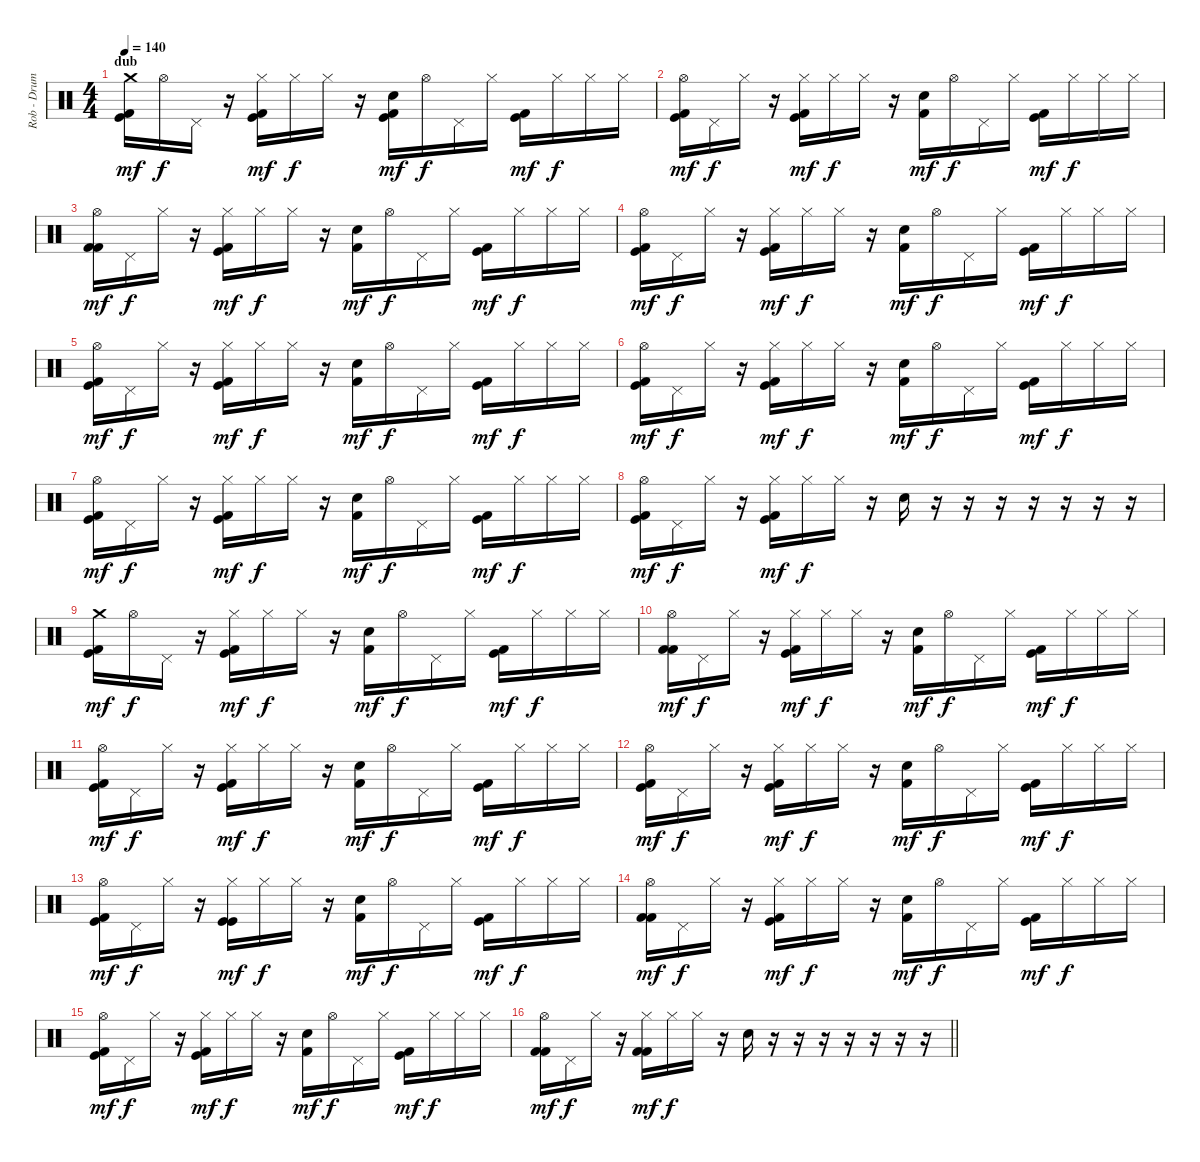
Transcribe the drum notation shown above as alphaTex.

\track ("Rob - Drums" "Rob - Drum") {instrument percussion}
\staff {score}
\articulation defaults
\ts (4 4)
\section ("" "dub")
\tempo 140
\clef neutral
\ks c
("Crash medium (hit)" "Kick (hit)" "Kick (hit) 2").16{dy mf} "Hi-Hat (open)".16{dy f} "Pedal Hi-Hat (hit)".16 r.16 ("Hi-Hat (closed)" "Kick (hit)" "Kick (hit) 2").16{dy mf} "Hi-Hat (closed)".16{dy f} "Hi-Hat (closed)".16 r.16 ("Kick (hit)" "Electric Snare (hit)" "Kick (hit) 2").16{dy mf} "Hi-Hat (open)".16{dy f} "Pedal Hi-Hat (hit)".16 "Hi-Hat (closed)".16 ("Kick (hit)" "Kick (hit) 2").16{dy mf} "Hi-Hat (closed)".16{dy f} "Hi-Hat (closed)".16 "Hi-Hat (closed)".16 |
("Hi-Hat (open)" "Kick (hit)" "Kick (hit) 2").16{dy mf} "Pedal Hi-Hat (hit)".16{dy f} "Hi-Hat (closed)".16 r.16 ("Hi-Hat (closed)" "Kick (hit)" "Kick (hit) 2").16{dy mf} "Hi-Hat (closed)".16{dy f} "Hi-Hat (closed)".16 r.16 ("Electric Snare (hit)" "Kick (hit) 2").16{dy mf} "Hi-Hat (open)".16{dy f} "Pedal Hi-Hat (hit)".16 "Hi-Hat (closed)".16 ("Kick (hit)" "Kick (hit) 2").16{dy mf} "Hi-Hat (closed)".16{dy f} "Hi-Hat (closed)".16 "Hi-Hat (closed)".16 |
("Hi-Hat (open)" "Kick (hit) 2" "Kick (hit) 2").16{dy mf} "Pedal Hi-Hat (hit)".16{dy f} "Hi-Hat (closed)".16 r.16 ("Hi-Hat (closed)" "Kick (hit)" "Kick (hit) 2").16{dy mf} "Hi-Hat (closed)".16{dy f} "Hi-Hat (closed)".16 r.16 ("Electric Snare (hit)" "Kick (hit) 2").16{dy mf} "Hi-Hat (open)".16{dy f} "Pedal Hi-Hat (hit)".16 "Hi-Hat (closed)".16 ("Kick (hit)" "Kick (hit) 2").16{dy mf} "Hi-Hat (closed)".16{dy f} "Hi-Hat (closed)".16 "Hi-Hat (closed)".16 |
("Hi-Hat (open)" "Kick (hit)" "Kick (hit) 2").16{dy mf} "Pedal Hi-Hat (hit)".16{dy f} "Hi-Hat (closed)".16 r.16 ("Hi-Hat (closed)" "Kick (hit)" "Kick (hit) 2").16{dy mf} "Hi-Hat (closed)".16{dy f} "Hi-Hat (closed)".16 r.16 ("Electric Snare (hit)" "Kick (hit) 2").16{dy mf} "Hi-Hat (open)".16{dy f} "Pedal Hi-Hat (hit)".16 "Hi-Hat (closed)".16 ("Kick (hit)" "Kick (hit) 2").16{dy mf} "Hi-Hat (closed)".16{dy f} "Hi-Hat (closed)".16 "Hi-Hat (closed)".16 |
("Hi-Hat (open)" "Kick (hit)" "Kick (hit) 2").16{dy mf} "Pedal Hi-Hat (hit)".16{dy f} "Hi-Hat (closed)".16 r.16 ("Hi-Hat (closed)" "Kick (hit) 2" "Kick (hit)").16{dy mf} "Hi-Hat (closed)".16{dy f} "Hi-Hat (closed)".16 r.16 ("Electric Snare (hit)" "Kick (hit) 2").16{dy mf} "Hi-Hat (open)".16{dy f} "Pedal Hi-Hat (hit)".16 "Hi-Hat (closed)".16 ("Kick (hit)" "Kick (hit) 2").16{dy mf} "Hi-Hat (closed)".16{dy f} "Hi-Hat (closed)".16 "Hi-Hat (closed)".16 |
("Hi-Hat (open)" "Kick (hit)" "Kick (hit) 2").16{dy mf} "Pedal Hi-Hat (hit)".16{dy f} "Hi-Hat (closed)".16 r.16 ("Hi-Hat (closed)" "Kick (hit)" "Kick (hit) 2").16{dy mf} "Hi-Hat (closed)".16{dy f} "Hi-Hat (closed)".16 r.16 ("Electric Snare (hit)" "Kick (hit) 2").16{dy mf} "Hi-Hat (open)".16{dy f} "Pedal Hi-Hat (hit)".16 "Hi-Hat (closed)".16 ("Kick (hit) 2" "Kick (hit)").16{dy mf} "Hi-Hat (closed)".16{dy f} "Hi-Hat (closed)".16 "Hi-Hat (closed)".16 |
("Hi-Hat (open)" "Kick (hit)" "Kick (hit) 2").16{dy mf} "Pedal Hi-Hat (hit)".16{dy f} "Hi-Hat (closed)".16 r.16 ("Hi-Hat (closed)" "Kick (hit)" "Kick (hit) 2").16{dy mf} "Hi-Hat (closed)".16{dy f} "Hi-Hat (closed)".16 r.16 ("Electric Snare (hit)" "Kick (hit) 2").16{dy mf} "Hi-Hat (open)".16{dy f} "Pedal Hi-Hat (hit)".16 "Hi-Hat (closed)".16 ("Kick (hit)" "Kick (hit) 2").16{dy mf} "Hi-Hat (closed)".16{dy f} "Hi-Hat (closed)".16 "Hi-Hat (closed)".16 |
("Hi-Hat (open)" "Kick (hit)" "Kick (hit) 2").16{dy mf} "Pedal Hi-Hat (hit)".16{dy f} "Hi-Hat (closed)".16 r.16 ("Hi-Hat (closed)" "Kick (hit)" "Kick (hit) 2").16{dy mf} "Hi-Hat (closed)".16{dy f} "Hi-Hat (closed)".16 r.16 "Electric Snare (hit)".16 r.16 r.16 r.16 r.16 r.16 r.16 r.16 |
("Crash medium (hit)" "Kick (hit)" "Kick (hit) 2").16{dy mf} "Hi-Hat (open)".16{dy f} "Pedal Hi-Hat (hit)".16 r.16 ("Hi-Hat (closed)" "Kick (hit)" "Kick (hit) 2").16{dy mf} "Hi-Hat (closed)".16{dy f} "Hi-Hat (closed)".16 r.16 ("Electric Snare (hit)" "Kick (hit) 2").16{dy mf} "Hi-Hat (open)".16{dy f} "Pedal Hi-Hat (hit)".16 "Hi-Hat (closed)".16 ("Kick (hit)" "Kick (hit) 2").16{dy mf} "Hi-Hat (closed)".16{dy f} "Hi-Hat (closed)".16 "Hi-Hat (closed)".16 |
("Hi-Hat (open)" "Kick (hit) 2" "Kick (hit) 2").16{dy mf} "Pedal Hi-Hat (hit)".16{dy f} "Hi-Hat (closed)".16 r.16 ("Hi-Hat (closed)" "Kick (hit) 2" "Kick (hit)").16{dy mf} "Hi-Hat (closed)".16{dy f} "Hi-Hat (closed)".16 r.16 ("Electric Snare (hit)" "Kick (hit) 2").16{dy mf} "Hi-Hat (open)".16{dy f} "Pedal Hi-Hat (hit)".16 "Hi-Hat (closed)".16 ("Kick (hit)" "Kick (hit) 2").16{dy mf} "Hi-Hat (closed)".16{dy f} "Hi-Hat (closed)".16 "Hi-Hat (closed)".16 |
("Hi-Hat (open)" "Kick (hit)" "Kick (hit) 2").16{dy mf} "Pedal Hi-Hat (hit)".16{dy f} "Hi-Hat (closed)".16 r.16 ("Hi-Hat (closed)" "Kick (hit)" "Kick (hit) 2").16{dy mf} "Hi-Hat (closed)".16{dy f} "Hi-Hat (closed)".16 r.16 ("Electric Snare (hit)" "Kick (hit) 2").16{dy mf} "Hi-Hat (open)".16{dy f} "Pedal Hi-Hat (hit)".16 "Hi-Hat (closed)".16 ("Kick (hit)" "Kick (hit) 2").16{dy mf} "Hi-Hat (closed)".16{dy f} "Hi-Hat (closed)".16 "Hi-Hat (closed)".16 |
("Hi-Hat (open)" "Kick (hit)" "Kick (hit) 2").16{dy mf} "Pedal Hi-Hat (hit)".16{dy f} "Hi-Hat (closed)".16 r.16 ("Hi-Hat (closed)" "Kick (hit)" "Kick (hit) 2").16{dy mf} "Hi-Hat (closed)".16{dy f} "Hi-Hat (closed)".16 r.16 ("Electric Snare (hit)" "Kick (hit) 2").16{dy mf} "Hi-Hat (open)".16{dy f} "Pedal Hi-Hat (hit)".16 "Hi-Hat (closed)".16 ("Kick (hit)" "Kick (hit) 2").16{dy mf} "Hi-Hat (closed)".16{dy f} "Hi-Hat (closed)".16 "Hi-Hat (closed)".16 |
("Hi-Hat (open)" "Kick (hit)" "Kick (hit) 2").16{dy mf} "Pedal Hi-Hat (hit)".16{dy f} "Hi-Hat (closed)".16 r.16 ("Hi-Hat (closed)" "Kick (hit)" "Kick (hit)").16{dy mf} "Hi-Hat (closed)".16{dy f} "Hi-Hat (closed)".16 r.16 ("Electric Snare (hit)" "Kick (hit) 2").16{dy mf} "Hi-Hat (open)".16{dy f} "Pedal Hi-Hat (hit)".16 "Hi-Hat (closed)".16 ("Kick (hit)" "Kick (hit) 2").16{dy mf} "Hi-Hat (closed)".16{dy f} "Hi-Hat (closed)".16 "Hi-Hat (closed)".16 |
("Hi-Hat (open)" "Kick (hit) 2" "Kick (hit) 2").16{dy mf} "Pedal Hi-Hat (hit)".16{dy f} "Hi-Hat (closed)".16 r.16 ("Hi-Hat (closed)" "Kick (hit) 2" "Kick (hit)").16{dy mf} "Hi-Hat (closed)".16{dy f} "Hi-Hat (closed)".16 r.16 ("Electric Snare (hit)" "Kick (hit) 2").16{dy mf} "Hi-Hat (open)".16{dy f} "Pedal Hi-Hat (hit)".16 "Hi-Hat (closed)".16 ("Kick (hit)" "Kick (hit) 2").16{dy mf} "Hi-Hat (closed)".16{dy f} "Hi-Hat (closed)".16 "Hi-Hat (closed)".16 |
("Hi-Hat (open)" "Kick (hit)" "Kick (hit) 2").16{dy mf} "Pedal Hi-Hat (hit)".16{dy f} "Hi-Hat (closed)".16 r.16 ("Hi-Hat (closed)" "Kick (hit) 2" "Kick (hit)").16{dy mf} "Hi-Hat (closed)".16{dy f} "Hi-Hat (closed)".16 r.16 ("Electric Snare (hit)" "Kick (hit) 2").16{dy mf} "Hi-Hat (open)".16{dy f} "Pedal Hi-Hat (hit)".16 "Hi-Hat (closed)".16 ("Kick (hit)" "Kick (hit) 2").16{dy mf} "Hi-Hat (closed)".16{dy f} "Hi-Hat (closed)".16 "Hi-Hat (closed)".16 |
\barLineRight lightlight
("Hi-Hat (open)" "Kick (hit) 2" "Kick (hit) 2").16{dy mf} "Pedal Hi-Hat (hit)".16{dy f} "Hi-Hat (closed)".16 r.16 ("Hi-Hat (closed)" "Kick (hit) 2" "Kick (hit) 2").16{dy mf} "Hi-Hat (closed)".16{dy f} "Hi-Hat (closed)".16 r.16 "Electric Snare (hit)".16 r.16 r.16 r.16 r.16 r.16 r.16 r.16
